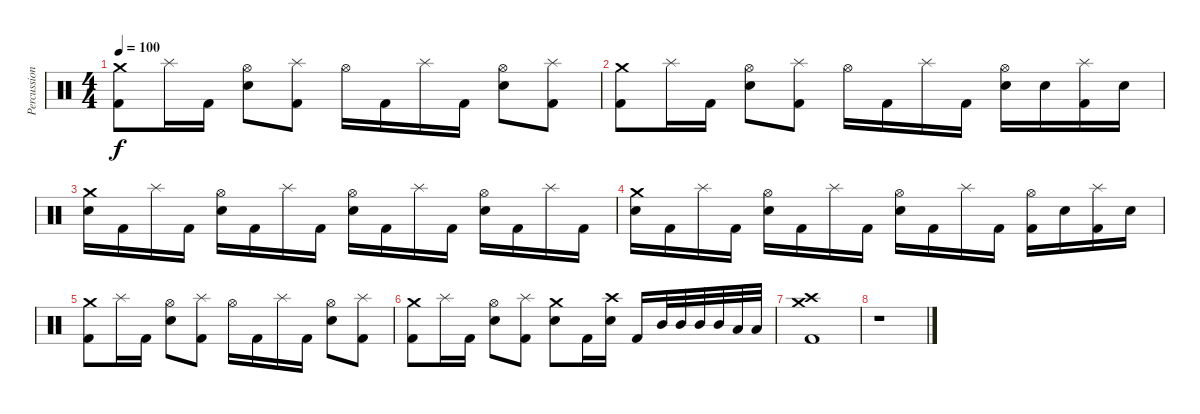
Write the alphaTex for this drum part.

\track ("Percussion" "Percussion") {instrument percussion}
\staff {score}
\articulation defaults
\ts (4 4)
\tempo 100
\clef neutral
\ks c
("Crash medium (hit)" "Kick (hit) 2").8{dy f} "Splash (hit)".16 "Kick (hit) 2".16 ("Hi-Hat (open)" "Electric Snare (hit)").8 ("Splash (hit)" "Kick (hit) 2").8 "Hi-Hat (open)".16 "Kick (hit) 2".16 "Splash (hit)".16 "Kick (hit) 2".16 ("Hi-Hat (open)" "Electric Snare (hit)").8 ("Splash (hit)" "Kick (hit) 2").8 |
("Crash medium (hit)" "Kick (hit) 2").8 "Splash (hit)".16 "Kick (hit) 2".16 ("Hi-Hat (open)" "Electric Snare (hit)").8 ("Splash (hit)" "Kick (hit) 2").8 "Hi-Hat (open)".16 "Kick (hit) 2".16 "Splash (hit)".16 "Kick (hit) 2".16 ("Hi-Hat (open)" "Electric Snare (hit)").16 "Electric Snare (hit)".16 ("Splash (hit)" "Kick (hit) 2").16 "Electric Snare (hit)".16 |
("Crash medium (hit)" "Electric Snare (hit)").16 "Kick (hit) 2".16 "Splash (hit)".16 "Kick (hit) 2".16 ("Hi-Hat (open)" "Electric Snare (hit)").16 "Kick (hit) 2".16 "Splash (hit)".16 "Kick (hit) 2".16 ("Hi-Hat (open)" "Electric Snare (hit)").16 "Kick (hit) 2".16 "Splash (hit)".16 "Kick (hit) 2".16 ("Hi-Hat (open)" "Electric Snare (hit)").16 "Kick (hit) 2".16 "Splash (hit)".16 "Kick (hit) 2".16 |
("Crash medium (hit)" "Electric Snare (hit)").16 "Kick (hit) 2".16 "Splash (hit)".16 "Kick (hit) 2".16 ("Hi-Hat (open)" "Electric Snare (hit)").16 "Kick (hit) 2".16 "Splash (hit)".16 "Kick (hit) 2".16 ("Hi-Hat (open)" "Electric Snare (hit)").16 "Kick (hit) 2".16 "Splash (hit)".16 "Kick (hit) 2".16 ("Hi-Hat (open)" "Kick (hit) 2").16 "Electric Snare (hit)".16 ("Splash (hit)" "Kick (hit) 2").16 "Electric Snare (hit)".16 |
("Crash medium (hit)" "Kick (hit) 2").8 "Splash (hit)".16 "Kick (hit) 2".16 ("Hi-Hat (open)" "Electric Snare (hit)").8 ("Splash (hit)" "Kick (hit) 2").8 "Hi-Hat (open)".16 "Kick (hit) 2".16 "Splash (hit)".16 "Kick (hit) 2".16 ("Hi-Hat (open)" "Electric Snare (hit)").8 ("Splash (hit)" "Kick (hit) 2").8 |
("Crash medium (hit)" "Kick (hit) 2").8 "Splash (hit)".16 "Kick (hit) 2".16 ("Hi-Hat (open)" "Electric Snare (hit)").8 ("Splash (hit)" "Kick (hit) 2").8 ("Crash medium (hit)" "Electric Snare (hit)").8 "Kick (hit) 2".16 ("Crash high (hit)" "Electric Snare (hit)").16 "Kick (hit) 2".16 "Mid Tom (hit)".32 "Mid Tom (hit)".32 "Mid Tom (hit)".32 "Mid Tom (hit)".32 "Low Tom (hit)".32 "Low Tom (hit)".32 |
("Crash medium (hit)" "Crash high (hit)" "Kick (hit) 2").1 |
r.1
